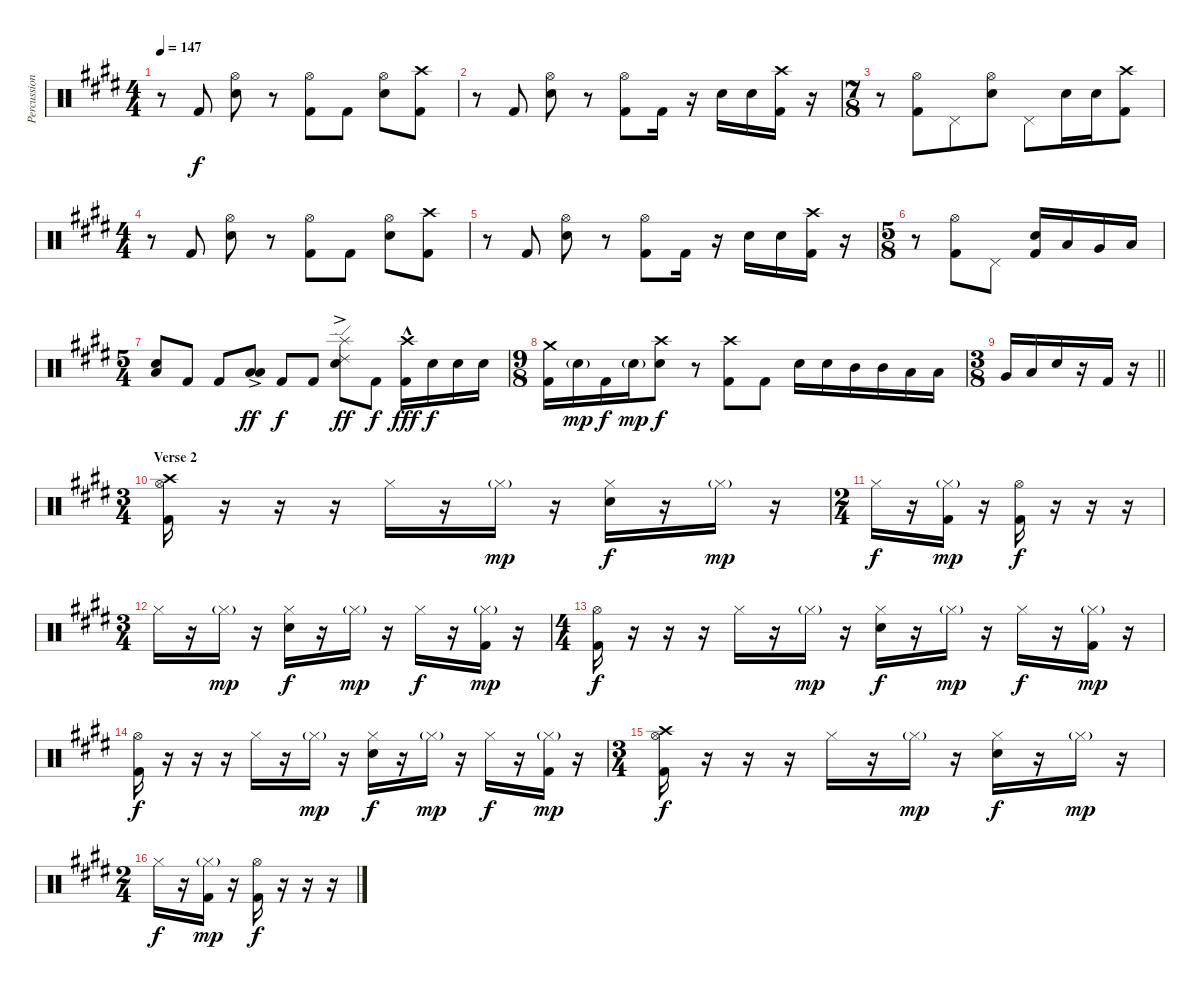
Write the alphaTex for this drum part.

\track ("Percussion" "Percussion") {instrument percussion}
\staff {score}
\articulation defaults
\ts (4 4)
\tempo 147
\clef neutral
\ks e
r.8{dy f} "Kick (hit) 2".8 ("Hi-Hat (open)" "Snare (hit) 2").8 r.8 ("Hi-Hat (open)" "Kick (hit) 2").8 "Kick (hit) 2".8 ("Hi-Hat (open)" "Snare (hit) 2").8 ("Crash high (hit)" "Kick (hit) 2").8 |
r.8 "Kick (hit) 2".8 ("Hi-Hat (open)" "Snare (hit) 2").8 r.8 ("Hi-Hat (open)" "Kick (hit) 2").8 "Kick (hit) 2".16 r.16 "Snare (hit) 2".16 "Snare (hit) 2".16 ("Crash high (hit)" "Kick (hit) 2").16 r.16 |
\ts (7 8)
r.8 ("Hi-Hat (open)" "Kick (hit) 2").8 "Pedal Hi-Hat (hit)".8 ("Hi-Hat (open)" "Snare (hit) 2").8 "Pedal Hi-Hat (hit)".8 "Snare (hit) 2".16 "Snare (hit) 2".16 ("Crash high (hit)" "Kick (hit) 2").8 |
\ts (4 4)
r.8 "Kick (hit) 2".8 ("Hi-Hat (open)" "Snare (hit) 2").8 r.8 ("Hi-Hat (open)" "Kick (hit) 2").8 "Kick (hit) 2".8 ("Hi-Hat (open)" "Snare (hit) 2").8 ("Crash high (hit)" "Kick (hit) 2").8 |
r.8 "Kick (hit) 2".8 ("Hi-Hat (open)" "Snare (hit) 2").8 r.8 ("Hi-Hat (open)" "Kick (hit) 2").8 "Kick (hit) 2".16 r.16 "Snare (hit) 2".16 "Snare (hit) 2".16 ("Crash high (hit)" "Kick (hit) 2").16 r.16 |
\ts (5 8)
r.8 ("Hi-Hat (open)" "Kick (hit) 2").8 "Pedal Hi-Hat (hit)".8 ("Snare (hit) 2" "Kick (hit) 2").16 "Low Tom (hit)".16 "Very Low Tom (hit)".16 "Low Floor Tom (hit)".16 |
\ts (5 4)
("Snare (hit) 2" "Low Tom (hit)").8{bd 120} "Kick (hit) 2".8 "Kick (hit) 2".8 ("Low Tom (hit)"{ac} "Low Floor Tom (hit)"{ac}).8{bd 120 dy ff} "Kick (hit) 2".8{dy f} "Kick (hit) 2".8 ("Ride (edge) 2" "Splash (hit)" "Snare (hit) 2"{ac}).8{dy ff} "Kick (hit) 2".8{dy f} ("Crash high (hit)"{hac} "Kick (hit) 2"{hac}).16{dy fff} "Snare (hit) 2".16{dy f} "Snare (hit) 2".16 "Snare (hit) 2".16 |
\ts (9 8)
("Crash medium (hit)" "Kick (hit) 2").16 "Snare (hit) 2"{g}.16{dy mp} "Kick (hit) 2".16{dy f} "Snare (hit) 2"{g}.16{dy mp} ("Crash high (hit)" "Snare (hit) 2").8{dy f} r.8 ("Crash high (hit)" "Kick (hit) 2").8 "Kick (hit) 2".8 "Snare (hit) 2".16 "Snare (hit) 2".16 "Mid Tom (hit)".16 "Mid Tom (hit)".16 "Low Tom (hit)".16 "Low Tom (hit)".16 |
\ts (3 8)
\barLineRight lightlight "Very Low Tom (hit)".16 "Low Floor Tom (hit)".16 "Snare (hit) 2".16
r.16 "Kick (hit) 2".16 r.16 |
\ts (3 4)
\section ("" "Verse 2")
("Hi-Hat (open)" "Crash high (hit)" "Kick (hit) 2").16 r.16 r.16 r.16 "Hi-Hat (closed)".16 r.16 "Hi-Hat (closed)"{g}.16{dy mp} r.16 ("Hi-Hat (closed)" "Snare (hit) 2").16{dy f} r.16 "Hi-Hat (closed)"{g}.16{dy mp} r.16 |
\ts (2 4)
"Hi-Hat (closed)".16{dy f} r.16 ("Hi-Hat (closed)"{g} "Kick (hit) 2").16{dy mp} r.16 ("Hi-Hat (open)" "Kick (hit) 2").16{dy f} r.16 r.16 r.16 |
\ts (3 4)
"Hi-Hat (closed)".16 r.16 "Hi-Hat (closed)"{g}.16{dy mp} r.16 ("Hi-Hat (closed)" "Snare (hit) 2").16{dy f} r.16 "Hi-Hat (closed)"{g}.16{dy mp} r.16 "Hi-Hat (closed)".16{dy f} r.16 ("Hi-Hat (closed)"{g} "Kick (hit) 2").16{dy mp} r.16 |
\ts (4 4)
("Hi-Hat (open)" "Kick (hit) 2").16{dy f} r.16 r.16 r.16 "Hi-Hat (closed)".16 r.16 "Hi-Hat (closed)"{g}.16{dy mp} r.16 ("Hi-Hat (closed)" "Snare (hit) 2").16{dy f} r.16 "Hi-Hat (closed)"{g}.16{dy mp} r.16 "Hi-Hat (closed)".16{dy f} r.16 ("Hi-Hat (closed)"{g} "Kick (hit) 2").16{dy mp} r.16 |
("Hi-Hat (open)" "Kick (hit) 2").16{dy f} r.16 r.16 r.16 "Hi-Hat (closed)".16 r.16 "Hi-Hat (closed)"{g}.16{dy mp} r.16 ("Hi-Hat (closed)" "Snare (hit) 2").16{dy f} r.16 "Hi-Hat (closed)"{g}.16{dy mp} r.16 "Hi-Hat (closed)".16{dy f} r.16 ("Hi-Hat (closed)"{g} "Kick (hit) 2").16{dy mp} r.16 |
\ts (3 4)
("Hi-Hat (open)" "Crash high (hit)" "Kick (hit) 2").16{dy f} r.16 r.16 r.16 "Hi-Hat (closed)".16 r.16 "Hi-Hat (closed)"{g}.16{dy mp} r.16 ("Hi-Hat (closed)" "Snare (hit) 2").16{dy f} r.16 "Hi-Hat (closed)"{g}.16{dy mp} r.16 |
\ts (2 4)
"Hi-Hat (closed)".16{dy f} r.16 ("Hi-Hat (closed)"{g} "Kick (hit) 2").16{dy mp} r.16 ("Hi-Hat (open)" "Kick (hit) 2").16{dy f} r.16 r.16 r.16
